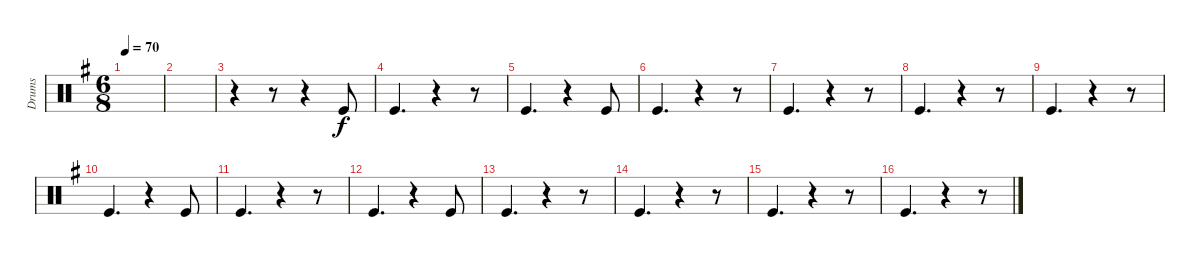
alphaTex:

\track ("Drums" "Drums") {instrument percussion}
\staff {score}
\articulation defaults
\ts (6 8)
\tempo 70
\clef neutral
\ks g
|
|
r.4 r.8 r.4 "Kick (hit)".8 |
"Kick (hit)".4{d} r.4 r.8 |
"Kick (hit)".4{d} r.4 "Kick (hit)".8 |
"Kick (hit)".4{d} r.4 r.8 |
"Kick (hit)".4{d} r.4 r.8 |
"Kick (hit)".4{d} r.4 r.8 |
"Kick (hit)".4{d} r.4 r.8 |
"Kick (hit)".4{d} r.4 "Kick (hit)".8 |
"Kick (hit)".4{d} r.4 r.8 |
"Kick (hit)".4{d} r.4 "Kick (hit)".8 |
"Kick (hit)".4{d} r.4 r.8 |
"Kick (hit)".4{d} r.4 r.8 |
"Kick (hit)".4{d} r.4 r.8 |
"Kick (hit)".4{d} r.4 r.8
